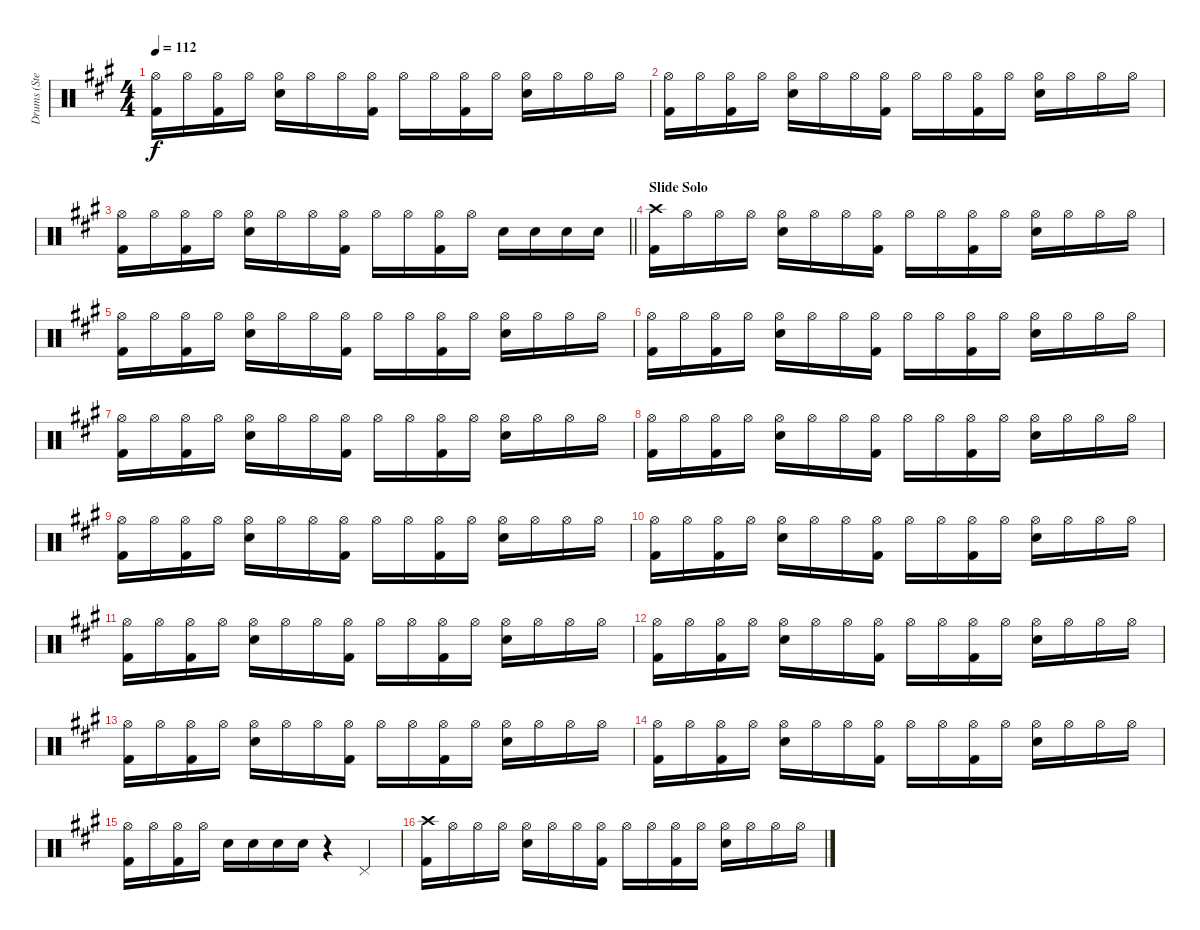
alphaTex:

\track ("Drums (Steven)" "Drums (Ste") {instrument percussion}
\staff {score}
\articulation defaults
\ts (4 4)
\tempo 112
\clef neutral
\ks f#minor
("Hi-Hat (open)" "Kick (hit) 2").16{dy f} "Hi-Hat (open)".16 ("Hi-Hat (open)" "Kick (hit) 2").16 "Hi-Hat (open)".16 ("Hi-Hat (open)" "Snare (hit) 2").16 "Hi-Hat (open)".16 "Hi-Hat (open)".16 ("Hi-Hat (open)" "Kick (hit) 2").16 "Hi-Hat (open)".16 "Hi-Hat (open)".16 ("Hi-Hat (open)" "Kick (hit) 2").16 "Hi-Hat (open)".16 ("Hi-Hat (open)" "Snare (hit) 2").16 "Hi-Hat (open)".16 "Hi-Hat (open)".16 "Hi-Hat (open)".16 |
("Hi-Hat (open)" "Kick (hit) 2").16 "Hi-Hat (open)".16 ("Hi-Hat (open)" "Kick (hit) 2").16 "Hi-Hat (open)".16 ("Hi-Hat (open)" "Snare (hit) 2").16 "Hi-Hat (open)".16 "Hi-Hat (open)".16 ("Hi-Hat (open)" "Kick (hit) 2").16 "Hi-Hat (open)".16 "Hi-Hat (open)".16 ("Hi-Hat (open)" "Kick (hit) 2").16 "Hi-Hat (open)".16 ("Hi-Hat (open)" "Snare (hit) 2").16 "Hi-Hat (open)".16 "Hi-Hat (open)".16 "Hi-Hat (open)".16 |
\barLineRight lightlight
("Hi-Hat (open)" "Kick (hit) 2").16 "Hi-Hat (open)".16 ("Hi-Hat (open)" "Kick (hit) 2").16 "Hi-Hat (open)".16 ("Hi-Hat (open)" "Snare (hit) 2").16 "Hi-Hat (open)".16 "Hi-Hat (open)".16 ("Hi-Hat (open)" "Kick (hit) 2").16 "Hi-Hat (open)".16 "Hi-Hat (open)".16 ("Hi-Hat (open)" "Kick (hit) 2").16 "Hi-Hat (open)".16 "Snare (hit) 2".16 "Snare (hit) 2".16 "Snare (hit) 2".16 "Snare (hit) 2".16 |
\section ("" "Slide Solo")
("Crash high (hit)" "Kick (hit) 2").16 "Hi-Hat (open)".16 "Hi-Hat (open)".16 "Hi-Hat (open)".16 ("Hi-Hat (open)" "Snare (hit) 2").16 "Hi-Hat (open)".16 "Hi-Hat (open)".16 ("Hi-Hat (open)" "Kick (hit) 2").16 "Hi-Hat (open)".16 "Hi-Hat (open)".16 ("Hi-Hat (open)" "Kick (hit) 2").16 "Hi-Hat (open)".16 ("Hi-Hat (open)" "Snare (hit) 2").16 "Hi-Hat (open)".16 "Hi-Hat (open)".16 "Hi-Hat (open)".16 |
("Hi-Hat (open)" "Kick (hit) 2").16 "Hi-Hat (open)".16 ("Hi-Hat (open)" "Kick (hit) 2").16 "Hi-Hat (open)".16 ("Hi-Hat (open)" "Snare (hit) 2").16 "Hi-Hat (open)".16 "Hi-Hat (open)".16 ("Hi-Hat (open)" "Kick (hit) 2").16 "Hi-Hat (open)".16 "Hi-Hat (open)".16 ("Hi-Hat (open)" "Kick (hit) 2").16 "Hi-Hat (open)".16 ("Hi-Hat (open)" "Snare (hit) 2").16 "Hi-Hat (open)".16 "Hi-Hat (open)".16 "Hi-Hat (open)".16 |
("Hi-Hat (open)" "Kick (hit) 2").16 "Hi-Hat (open)".16 ("Hi-Hat (open)" "Kick (hit) 2").16 "Hi-Hat (open)".16 ("Hi-Hat (open)" "Snare (hit) 2").16 "Hi-Hat (open)".16 "Hi-Hat (open)".16 ("Hi-Hat (open)" "Kick (hit) 2").16 "Hi-Hat (open)".16 "Hi-Hat (open)".16 ("Hi-Hat (open)" "Kick (hit) 2").16 "Hi-Hat (open)".16 ("Hi-Hat (open)" "Snare (hit) 2").16 "Hi-Hat (open)".16 "Hi-Hat (open)".16 "Hi-Hat (open)".16 |
("Hi-Hat (open)" "Kick (hit) 2").16 "Hi-Hat (open)".16 ("Hi-Hat (open)" "Kick (hit) 2").16 "Hi-Hat (open)".16 ("Hi-Hat (open)" "Snare (hit) 2").16 "Hi-Hat (open)".16 "Hi-Hat (open)".16 ("Hi-Hat (open)" "Kick (hit) 2").16 "Hi-Hat (open)".16 "Hi-Hat (open)".16 ("Hi-Hat (open)" "Kick (hit) 2").16 "Hi-Hat (open)".16 ("Hi-Hat (open)" "Snare (hit) 2").16 "Hi-Hat (open)".16 "Hi-Hat (open)".16 "Hi-Hat (open)".16 |
("Hi-Hat (open)" "Kick (hit) 2").16 "Hi-Hat (open)".16 ("Hi-Hat (open)" "Kick (hit) 2").16 "Hi-Hat (open)".16 ("Hi-Hat (open)" "Snare (hit) 2").16 "Hi-Hat (open)".16 "Hi-Hat (open)".16 ("Hi-Hat (open)" "Kick (hit) 2").16 "Hi-Hat (open)".16 "Hi-Hat (open)".16 ("Hi-Hat (open)" "Kick (hit) 2").16 "Hi-Hat (open)".16 ("Hi-Hat (open)" "Snare (hit) 2").16 "Hi-Hat (open)".16 "Hi-Hat (open)".16 "Hi-Hat (open)".16 |
("Hi-Hat (open)" "Kick (hit) 2").16 "Hi-Hat (open)".16 ("Hi-Hat (open)" "Kick (hit) 2").16 "Hi-Hat (open)".16 ("Hi-Hat (open)" "Snare (hit) 2").16 "Hi-Hat (open)".16 "Hi-Hat (open)".16 ("Hi-Hat (open)" "Kick (hit) 2").16 "Hi-Hat (open)".16 "Hi-Hat (open)".16 ("Hi-Hat (open)" "Kick (hit) 2").16 "Hi-Hat (open)".16 ("Hi-Hat (open)" "Snare (hit) 2").16 "Hi-Hat (open)".16 "Hi-Hat (open)".16 "Hi-Hat (open)".16 |
("Hi-Hat (open)" "Kick (hit) 2").16 "Hi-Hat (open)".16 ("Hi-Hat (open)" "Kick (hit) 2").16 "Hi-Hat (open)".16 ("Hi-Hat (open)" "Snare (hit) 2").16 "Hi-Hat (open)".16 "Hi-Hat (open)".16 ("Hi-Hat (open)" "Kick (hit) 2").16 "Hi-Hat (open)".16 "Hi-Hat (open)".16 ("Hi-Hat (open)" "Kick (hit) 2").16 "Hi-Hat (open)".16 ("Hi-Hat (open)" "Snare (hit) 2").16 "Hi-Hat (open)".16 "Hi-Hat (open)".16 "Hi-Hat (open)".16 |
("Hi-Hat (open)" "Kick (hit) 2").16 "Hi-Hat (open)".16 ("Hi-Hat (open)" "Kick (hit) 2").16 "Hi-Hat (open)".16 ("Hi-Hat (open)" "Snare (hit) 2").16 "Hi-Hat (open)".16 "Hi-Hat (open)".16 ("Hi-Hat (open)" "Kick (hit) 2").16 "Hi-Hat (open)".16 "Hi-Hat (open)".16 ("Hi-Hat (open)" "Kick (hit) 2").16 "Hi-Hat (open)".16 ("Hi-Hat (open)" "Snare (hit) 2").16 "Hi-Hat (open)".16 "Hi-Hat (open)".16 "Hi-Hat (open)".16 |
("Hi-Hat (open)" "Kick (hit) 2").16 "Hi-Hat (open)".16 ("Hi-Hat (open)" "Kick (hit) 2").16 "Hi-Hat (open)".16 ("Hi-Hat (open)" "Snare (hit) 2").16 "Hi-Hat (open)".16 "Hi-Hat (open)".16 ("Hi-Hat (open)" "Kick (hit) 2").16 "Hi-Hat (open)".16 "Hi-Hat (open)".16 ("Hi-Hat (open)" "Kick (hit) 2").16 "Hi-Hat (open)".16 ("Hi-Hat (open)" "Snare (hit) 2").16 "Hi-Hat (open)".16 "Hi-Hat (open)".16 "Hi-Hat (open)".16 |
("Hi-Hat (open)" "Kick (hit) 2").16 "Hi-Hat (open)".16 ("Hi-Hat (open)" "Kick (hit) 2").16 "Hi-Hat (open)".16 ("Hi-Hat (open)" "Snare (hit) 2").16 "Hi-Hat (open)".16 "Hi-Hat (open)".16 ("Hi-Hat (open)" "Kick (hit) 2").16 "Hi-Hat (open)".16 "Hi-Hat (open)".16 ("Hi-Hat (open)" "Kick (hit) 2").16 "Hi-Hat (open)".16 ("Hi-Hat (open)" "Snare (hit) 2").16 "Hi-Hat (open)".16 "Hi-Hat (open)".16 "Hi-Hat (open)".16 |
("Hi-Hat (open)" "Kick (hit) 2").16 "Hi-Hat (open)".16 ("Hi-Hat (open)" "Kick (hit) 2").16 "Hi-Hat (open)".16 ("Hi-Hat (open)" "Snare (hit) 2").16 "Hi-Hat (open)".16 "Hi-Hat (open)".16 ("Hi-Hat (open)" "Kick (hit) 2").16 "Hi-Hat (open)".16 "Hi-Hat (open)".16 ("Hi-Hat (open)" "Kick (hit) 2").16 "Hi-Hat (open)".16 ("Hi-Hat (open)" "Snare (hit) 2").16 "Hi-Hat (open)".16 "Hi-Hat (open)".16 "Hi-Hat (open)".16 |
("Hi-Hat (open)" "Kick (hit) 2").16 "Hi-Hat (open)".16 ("Hi-Hat (open)" "Kick (hit) 2").16 "Hi-Hat (open)".16 "Snare (hit) 2".16 "Snare (hit) 2".16 "Snare (hit) 2".16 "Snare (hit) 2".16 r.4 "Pedal Hi-Hat (hit)".4 |
("Crash high (hit)" "Kick (hit) 2").16 "Hi-Hat (open)".16 "Hi-Hat (open)".16 "Hi-Hat (open)".16 ("Hi-Hat (open)" "Snare (hit) 2").16 "Hi-Hat (open)".16 "Hi-Hat (open)".16 ("Hi-Hat (open)" "Kick (hit) 2").16 "Hi-Hat (open)".16 "Hi-Hat (open)".16 ("Hi-Hat (open)" "Kick (hit) 2").16 "Hi-Hat (open)".16 ("Hi-Hat (open)" "Snare (hit) 2").16 "Hi-Hat (open)".16 "Hi-Hat (open)".16 "Hi-Hat (open)".16
